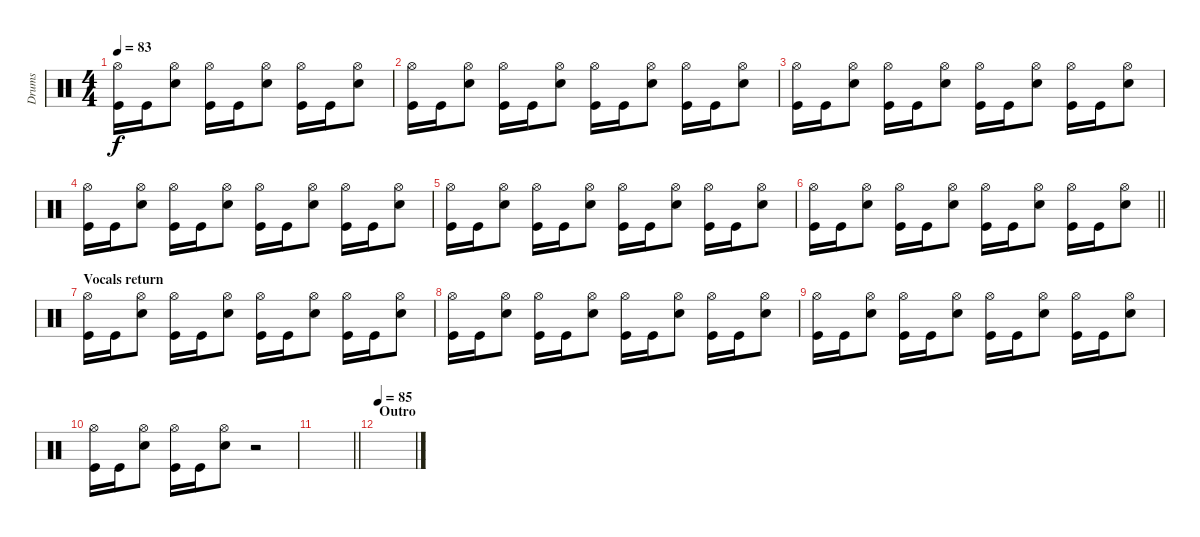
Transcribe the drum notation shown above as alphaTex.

\track ("Drums" "Drums") {instrument percussion}
\staff {score}
\articulation defaults
\ts (4 4)
\tempo 83
\clef neutral
\ks c
("Hi-Hat (open)" "Kick (hit)").16{dy f} "Kick (hit)".16 ("Hi-Hat (open)" "Snare (hit) 2").8 ("Hi-Hat (open)" "Kick (hit)").16 "Kick (hit)".16 ("Hi-Hat (open)" "Snare (hit) 2").8 ("Hi-Hat (open)" "Kick (hit)").16 "Kick (hit)".16 ("Hi-Hat (open)" "Snare (hit) 2").8 |
("Hi-Hat (open)" "Kick (hit)").16 "Kick (hit)".16 ("Hi-Hat (open)" "Snare (hit) 2").8 ("Hi-Hat (open)" "Kick (hit)").16 "Kick (hit)".16 ("Hi-Hat (open)" "Snare (hit) 2").8 ("Hi-Hat (open)" "Kick (hit)").16 "Kick (hit)".16 ("Hi-Hat (open)" "Snare (hit) 2").8 ("Hi-Hat (open)" "Kick (hit)").16 "Kick (hit)".16 ("Hi-Hat (open)" "Snare (hit) 2").8 |
("Hi-Hat (open)" "Kick (hit)").16 "Kick (hit)".16 ("Hi-Hat (open)" "Snare (hit) 2").8 ("Hi-Hat (open)" "Kick (hit)").16 "Kick (hit)".16 ("Hi-Hat (open)" "Snare (hit) 2").8 ("Hi-Hat (open)" "Kick (hit)").16 "Kick (hit)".16 ("Hi-Hat (open)" "Snare (hit) 2").8 ("Hi-Hat (open)" "Kick (hit)").16 "Kick (hit)".16 ("Hi-Hat (open)" "Snare (hit) 2").8 |
("Hi-Hat (open)" "Kick (hit)").16 "Kick (hit)".16 ("Hi-Hat (open)" "Snare (hit) 2").8 ("Hi-Hat (open)" "Kick (hit)").16 "Kick (hit)".16 ("Hi-Hat (open)" "Snare (hit) 2").8 ("Hi-Hat (open)" "Kick (hit)").16 "Kick (hit)".16 ("Hi-Hat (open)" "Snare (hit) 2").8 ("Hi-Hat (open)" "Kick (hit)").16 "Kick (hit)".16 ("Hi-Hat (open)" "Snare (hit) 2").8 |
("Hi-Hat (open)" "Kick (hit)").16 "Kick (hit)".16 ("Hi-Hat (open)" "Snare (hit) 2").8 ("Hi-Hat (open)" "Kick (hit)").16 "Kick (hit)".16 ("Hi-Hat (open)" "Snare (hit) 2").8 ("Hi-Hat (open)" "Kick (hit)").16 "Kick (hit)".16 ("Hi-Hat (open)" "Snare (hit) 2").8 ("Hi-Hat (open)" "Kick (hit)").16 "Kick (hit)".16 ("Hi-Hat (open)" "Snare (hit) 2").8 |
\barLineRight lightlight
("Hi-Hat (open)" "Kick (hit)").16 "Kick (hit)".16 ("Hi-Hat (open)" "Snare (hit) 2").8 ("Hi-Hat (open)" "Kick (hit)").16 "Kick (hit)".16 ("Hi-Hat (open)" "Snare (hit) 2").8 ("Hi-Hat (open)" "Kick (hit)").16 "Kick (hit)".16 ("Hi-Hat (open)" "Snare (hit) 2").8 ("Hi-Hat (open)" "Kick (hit)").16 "Kick (hit)".16 ("Hi-Hat (open)" "Snare (hit) 2").8 |
\section ("" "Vocals return")
("Hi-Hat (open)" "Kick (hit)").16 "Kick (hit)".16 ("Hi-Hat (open)" "Snare (hit) 2").8 ("Hi-Hat (open)" "Kick (hit)").16 "Kick (hit)".16 ("Hi-Hat (open)" "Snare (hit) 2").8 ("Hi-Hat (open)" "Kick (hit)").16 "Kick (hit)".16 ("Hi-Hat (open)" "Snare (hit) 2").8 ("Hi-Hat (open)" "Kick (hit)").16 "Kick (hit)".16 ("Hi-Hat (open)" "Snare (hit) 2").8 |
("Hi-Hat (open)" "Kick (hit)").16 "Kick (hit)".16 ("Hi-Hat (open)" "Snare (hit) 2").8 ("Hi-Hat (open)" "Kick (hit)").16 "Kick (hit)".16 ("Hi-Hat (open)" "Snare (hit) 2").8 ("Hi-Hat (open)" "Kick (hit)").16 "Kick (hit)".16 ("Hi-Hat (open)" "Snare (hit) 2").8 ("Hi-Hat (open)" "Kick (hit)").16 "Kick (hit)".16 ("Hi-Hat (open)" "Snare (hit) 2").8 |
("Hi-Hat (open)" "Kick (hit)").16 "Kick (hit)".16 ("Hi-Hat (open)" "Snare (hit) 2").8 ("Hi-Hat (open)" "Kick (hit)").16 "Kick (hit)".16 ("Hi-Hat (open)" "Snare (hit) 2").8 ("Hi-Hat (open)" "Kick (hit)").16 "Kick (hit)".16 ("Hi-Hat (open)" "Snare (hit) 2").8 ("Hi-Hat (open)" "Kick (hit)").16 "Kick (hit)".16 ("Hi-Hat (open)" "Snare (hit) 2").8 |
("Hi-Hat (open)" "Kick (hit)").16 "Kick (hit)".16 ("Hi-Hat (open)" "Snare (hit) 2").8 ("Hi-Hat (open)" "Kick (hit)").16 "Kick (hit)".16 ("Hi-Hat (open)" "Snare (hit) 2").8 r.2 |
\barLineRight lightlight
|
\section ("" "Outro")
\tempo 85
